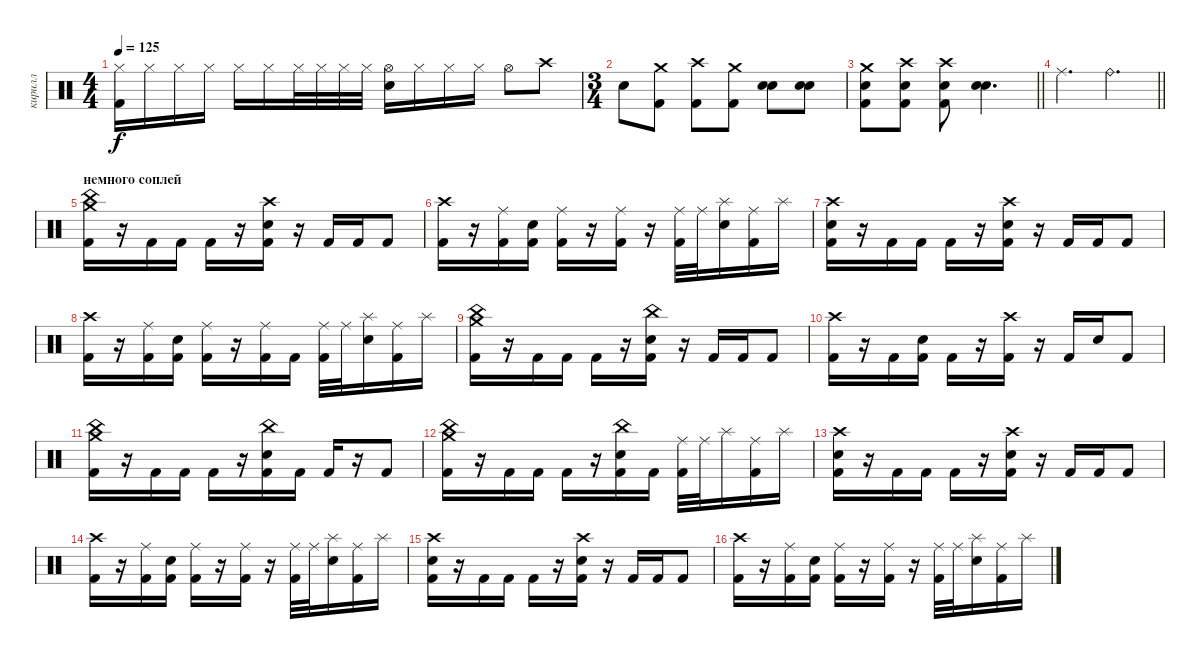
\track ("кирилл" "кирилл") {instrument percussion}
\staff {score}
\articulation defaults
\ts (4 4)
\tempo 125
\clef neutral
\ks c
("Hi-Hat (closed)" "Kick (hit) 2").16{dy f} "Hi-Hat (closed)".16 "Hi-Hat (closed)".16 "Hi-Hat (closed)".16 "Hi-Hat (closed)".16 "Hi-Hat (closed)".16 "Hi-Hat (closed)".32 "Hi-Hat (closed)".32 "Hi-Hat (closed)".32 "Hi-Hat (closed)".32 ("Hi-Hat (open)" "Electric Snare (hit)").16 "Hi-Hat (closed)".16 "Hi-Hat (closed)".16 "Hi-Hat (closed)".16 "Hi-Hat (open)".8 "Crash high (hit)".8 |
\ts (3 4)
"Electric Snare (hit)".8 ("Crash medium (hit)" "Kick (hit) 2").8 ("Crash high (hit)" "Kick (hit) 2").8 ("Crash medium (hit)" "Kick (hit) 2").8 ("Electric Snare (hit)" "Electric Snare (hit)").8 ("Electric Snare (hit)" "Electric Snare (hit)").8 |
\barLineRight lightlight
("Crash medium (hit)" "Electric Snare (hit)" "Kick (hit) 2").8 ("Crash high (hit)" "Electric Snare (hit)" "Kick (hit) 2").8 ("Crash high (hit)" "Electric Snare (hit)" "Kick (hit) 2").8 ("Electric Snare (hit)" "Electric Snare (hit)").4{d} |
\barLineRight lightlight "Ride (middle)".4{d} "Ride (bell)".4{d}
|
\section ("" "немного соплей")
("China (hit)" "Crash medium (hit)" "Kick (hit) 2").16 r.16 "Kick (hit) 2".16 "Kick (hit) 2".16 "Kick (hit) 2".16 r.16 ("Crash high (hit)" "Electric Snare (hit)" "Kick (hit) 2").16 r.16 "Kick (hit) 2".16 "Kick (hit) 2".16 "Kick (hit) 2".8 |
("Crash high (hit)" "Kick (hit) 2").16 r.16 ("Ride (middle)" "Kick (hit) 2").16 ("Electric Snare (hit)" "Kick (hit) 2").16 ("Ride (middle)" "Kick (hit) 2").16 r.16 ("Ride (middle)" "Kick (hit) 2").16 r.16 ("Ride (middle)" "Kick (hit) 2").32 "Ride (middle)".32 ("Splash (hit)" "Electric Snare (hit)").16 ("Ride (middle)" "Kick (hit) 2").16 "Splash (hit)".16 |
("Crash high (hit)" "Electric Snare (hit)" "Kick (hit) 2").16 r.16 "Kick (hit) 2".16 "Kick (hit) 2".16 "Kick (hit) 2".16 r.16 ("Crash high (hit)" "Electric Snare (hit)" "Kick (hit) 2").16 r.16 "Kick (hit) 2".16 "Kick (hit) 2".16 "Kick (hit) 2".8 |
("Crash high (hit)" "Kick (hit) 2").16 r.16 ("Ride (middle)" "Kick (hit) 2").16 ("Electric Snare (hit)" "Kick (hit) 2").16 ("Ride (middle)" "Kick (hit) 2").16 r.16 ("Ride (middle)" "Kick (hit) 2").16 "Kick (hit) 2".16 ("Ride (middle)" "Kick (hit) 2").32 "Ride (middle)".32 ("Splash (hit)" "Electric Snare (hit)").16 ("Ride (middle)" "Kick (hit) 2").16 "Splash (hit)".16 |
("China (hit)" "Crash medium (hit)" "Kick (hit) 2").16 r.16 "Kick (hit) 2".16 "Kick (hit) 2".16 "Kick (hit) 2".16 r.16 ("China (hit)" "Electric Snare (hit)" "Kick (hit) 2").16 r.16 "Kick (hit) 2".16 "Kick (hit) 2".16 "Kick (hit) 2".8 |
("Crash high (hit)" "Kick (hit) 2").16 r.16 "Kick (hit) 2".16 ("Electric Snare (hit)" "Kick (hit) 2").16 "Kick (hit) 2".16 r.16 ("Crash high (hit)" "Kick (hit) 2").16 r.16 "Kick (hit) 2".16 "Electric Snare (hit)".16 "Kick (hit) 2".8 |
("China (hit)" "Crash medium (hit)" "Kick (hit) 2").16 r.16 "Kick (hit) 2".16 "Kick (hit) 2".16 "Kick (hit) 2".16 r.16 ("China (hit)" "Electric Snare (hit)" "Kick (hit) 2").16 "Kick (hit) 2".16 "Kick (hit) 2".16 r.16 "Kick (hit) 2".8 |
("China (hit)" "Crash medium (hit)" "Kick (hit) 2").16 r.16 "Kick (hit) 2".16 "Kick (hit) 2".16 "Kick (hit) 2".16 r.16 ("China (hit)" "Electric Snare (hit)" "Kick (hit) 2").16 "Kick (hit) 2".16 ("Ride (middle)" "Kick (hit) 2").32 "Ride (middle)".32 "Splash (hit)".16 ("Ride (middle)" "Kick (hit) 2").16 "Splash (hit)".16 |
("Crash high (hit)" "Electric Snare (hit)" "Kick (hit) 2").16 r.16 "Kick (hit) 2".16 "Kick (hit) 2".16 "Kick (hit) 2".16 r.16 ("Crash high (hit)" "Electric Snare (hit)" "Kick (hit) 2").16 r.16 "Kick (hit) 2".16 "Kick (hit) 2".16 "Kick (hit) 2".8 |
("Crash high (hit)" "Kick (hit) 2").16 r.16 ("Ride (middle)" "Kick (hit) 2").16 ("Electric Snare (hit)" "Kick (hit) 2").16 ("Ride (middle)" "Kick (hit) 2").16 r.16 ("Ride (middle)" "Kick (hit) 2").16 r.16 ("Ride (middle)" "Kick (hit) 2").32 "Ride (middle)".32 ("Splash (hit)" "Electric Snare (hit)").16 ("Ride (middle)" "Kick (hit) 2").16 "Splash (hit)".16 |
("Crash high (hit)" "Electric Snare (hit)" "Kick (hit) 2").16 r.16 "Kick (hit) 2".16 "Kick (hit) 2".16 "Kick (hit) 2".16 r.16 ("Crash high (hit)" "Electric Snare (hit)" "Kick (hit) 2").16 r.16 "Kick (hit) 2".16 "Kick (hit) 2".16 "Kick (hit) 2".8 |
("Crash high (hit)" "Kick (hit) 2").16 r.16 ("Ride (middle)" "Kick (hit) 2").16 ("Electric Snare (hit)" "Kick (hit) 2").16 ("Ride (middle)" "Kick (hit) 2").16 r.16 ("Ride (middle)" "Kick (hit) 2").16 r.16 ("Ride (middle)" "Kick (hit) 2").32 "Ride (middle)".32 ("Splash (hit)" "Electric Snare (hit)").16 ("Ride (middle)" "Kick (hit) 2").16 "Splash (hit)".16
